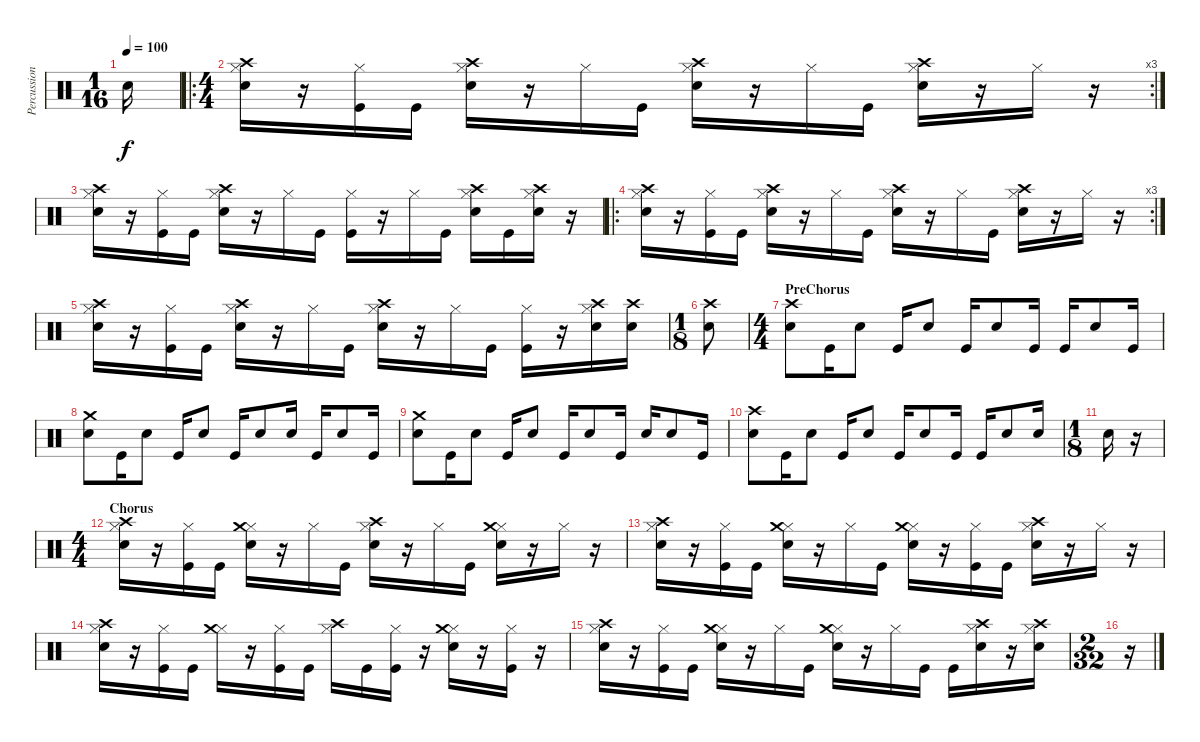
\track ("Percussion" "Percussion") {instrument percussion}
\staff {score}
\articulation defaults
\ts (1 16)
\tempo 100
\clef neutral
\ks c "Electric Snare (hit)".16{dy f}
|
\ro
\rc 3
\ts (4 4)
("Hi-Hat (closed)" "Crash high (hit)" "Electric Snare (hit)").16 r.16 ("Hi-Hat (closed)" "Kick (hit)").16 "Kick (hit)".16 ("Hi-Hat (closed)" "Crash high (hit)" "Electric Snare (hit)").16 r.16 "Hi-Hat (closed)".16 "Kick (hit)".16 ("Hi-Hat (closed)" "Crash high (hit)" "Electric Snare (hit)").16 r.16 "Hi-Hat (closed)".16 "Kick (hit)".16 ("Hi-Hat (closed)" "Crash high (hit)" "Electric Snare (hit)").16 r.16 "Hi-Hat (closed)".16 r.16 |
("Hi-Hat (closed)" "Crash high (hit)" "Electric Snare (hit)").16 r.16 ("Hi-Hat (closed)" "Kick (hit)").16 "Kick (hit)".16 ("Hi-Hat (closed)" "Crash high (hit)" "Electric Snare (hit)").16 r.16 "Hi-Hat (closed)".16 "Kick (hit)".16 ("Hi-Hat (closed)" "Kick (hit)").16 r.16 "Hi-Hat (closed)".16 "Kick (hit)".16 ("Hi-Hat (closed)" "Crash high (hit)" "Electric Snare (hit)").16 "Kick (hit)".16 ("Hi-Hat (closed)" "Crash high (hit)" "Electric Snare (hit)").16 r.16 |
\ro
\rc 3
("Hi-Hat (closed)" "Crash high (hit)" "Electric Snare (hit)").16 r.16 ("Hi-Hat (closed)" "Kick (hit)").16 "Kick (hit)".16 ("Hi-Hat (closed)" "Crash high (hit)" "Electric Snare (hit)").16 r.16 "Hi-Hat (closed)".16 "Kick (hit)".16 ("Hi-Hat (closed)" "Crash high (hit)" "Electric Snare (hit)").16 r.16 "Hi-Hat (closed)".16 "Kick (hit)".16 ("Hi-Hat (closed)" "Crash high (hit)" "Electric Snare (hit)").16 r.16 "Hi-Hat (closed)".16 r.16 |
("Hi-Hat (closed)" "Crash high (hit)" "Electric Snare (hit)").16 r.16 ("Hi-Hat (closed)" "Kick (hit)").16 "Kick (hit)".16 ("Hi-Hat (closed)" "Crash high (hit)" "Electric Snare (hit)").16 r.16 "Hi-Hat (closed)".16 "Kick (hit)".16 ("Hi-Hat (closed)" "Crash high (hit)" "Electric Snare (hit)").16 r.16 "Hi-Hat (closed)".16 "Kick (hit)".16 ("Hi-Hat (closed)" "Kick (hit)").16 r.16 ("Hi-Hat (closed)" "Crash high (hit)" "Electric Snare (hit)").16 ("Crash high (hit)" "Electric Snare (hit)").16 |
\ts (1 8)
("Crash high (hit)" "Electric Snare (hit)").8 |
\ts (4 4)
\section ("" "PreChorus")
("Crash high (hit)" "Electric Snare (hit)").8 "Kick (hit)".16 "Electric Snare (hit)".8 "Kick (hit)".16 "Electric Snare (hit)".8 "Kick (hit)".16 "Electric Snare (hit)".8 "Kick (hit)".16 "Kick (hit)".16 "Electric Snare (hit)".8 "Kick (hit)".16 |
("Crash medium (hit)" "Electric Snare (hit)").8 "Kick (hit)".16 "Electric Snare (hit)".8 "Kick (hit)".16 "Electric Snare (hit)".8 "Kick (hit)".16 "Electric Snare (hit)".8 "Electric Snare (hit)".16 "Kick (hit)".16 "Electric Snare (hit)".8 "Kick (hit)".16 |
("Crash medium (hit)" "Electric Snare (hit)").8 "Kick (hit)".16 "Electric Snare (hit)".8 "Kick (hit)".16 "Electric Snare (hit)".8 "Kick (hit)".16 "Electric Snare (hit)".8 "Kick (hit)".16 "Electric Snare (hit)".16 "Electric Snare (hit)".8 "Kick (hit)".16 |
("Crash high (hit)" "Electric Snare (hit)").8 "Kick (hit)".16 "Electric Snare (hit)".8 "Kick (hit)".16 "Electric Snare (hit)".8 "Kick (hit)".16 "Electric Snare (hit)".8 "Kick (hit)".16 "Kick (hit)".16 "Electric Snare (hit)".8 "Electric Snare (hit)".16 |
\ts (1 8)
"Electric Snare (hit)".16 r.16 |
\ts (4 4)
\section ("" "Chorus")
("Hi-Hat (closed)" "Crash high (hit)" "Electric Snare (hit)").16 r.16 ("Hi-Hat (closed)" "Kick (hit)").16 "Kick (hit)".16 ("Hi-Hat (closed)" "Crash medium (hit)" "Electric Snare (hit)").16 r.16 "Hi-Hat (closed)".16 "Kick (hit)".16 ("Hi-Hat (closed)" "Crash high (hit)" "Electric Snare (hit)").16 r.16 "Hi-Hat (closed)".16 "Kick (hit)".16 ("Hi-Hat (closed)" "Crash medium (hit)" "Electric Snare (hit)").16 r.16 "Hi-Hat (closed)".16 r.16 |
("Hi-Hat (closed)" "Crash high (hit)" "Electric Snare (hit)").16 r.16 ("Hi-Hat (closed)" "Kick (hit)").16 "Kick (hit)".16 ("Hi-Hat (closed)" "Crash medium (hit)" "Electric Snare (hit)").16 r.16 "Hi-Hat (closed)".16 "Kick (hit)".16 ("Hi-Hat (closed)" "Crash medium (hit)" "Electric Snare (hit)").16 r.16 ("Hi-Hat (closed)" "Kick (hit)").16 "Kick (hit)".16 ("Hi-Hat (closed)" "Crash high (hit)" "Electric Snare (hit)").16 r.16 "Hi-Hat (closed)".16 r.16 |
("Hi-Hat (closed)" "Crash high (hit)" "Electric Snare (hit)").16 r.16 ("Hi-Hat (closed)" "Kick (hit)").16 "Kick (hit)".16 ("Hi-Hat (closed)" "Crash medium (hit)").16 r.16 ("Hi-Hat (closed)" "Kick (hit)").16 "Kick (hit)".16 ("Hi-Hat (closed)" "Crash high (hit)").16 "Kick (hit)".16 ("Hi-Hat (closed)" "Kick (hit)").16 r.16 ("Hi-Hat (closed)" "Crash medium (hit)" "Electric Snare (hit)").16 r.16 ("Hi-Hat (closed)" "Kick (hit)").16 r.16 |
("Hi-Hat (closed)" "Crash high (hit)" "Electric Snare (hit)").16 r.16 ("Hi-Hat (closed)" "Kick (hit)").16 "Kick (hit)".16 ("Hi-Hat (closed)" "Crash medium (hit)" "Electric Snare (hit)").16 r.16 "Hi-Hat (closed)".16 "Kick (hit)".16 ("Hi-Hat (closed)" "Crash medium (hit)" "Electric Snare (hit)").16 r.16 "Hi-Hat (closed)".16 "Kick (hit)".16 "Kick (hit)".16 ("Hi-Hat (closed)" "Crash high (hit)" "Electric Snare (hit)").16 r.16 ("Hi-Hat (closed)" "Crash high (hit)" "Electric Snare (hit)").16 |
\ts (2 32)
r.16
